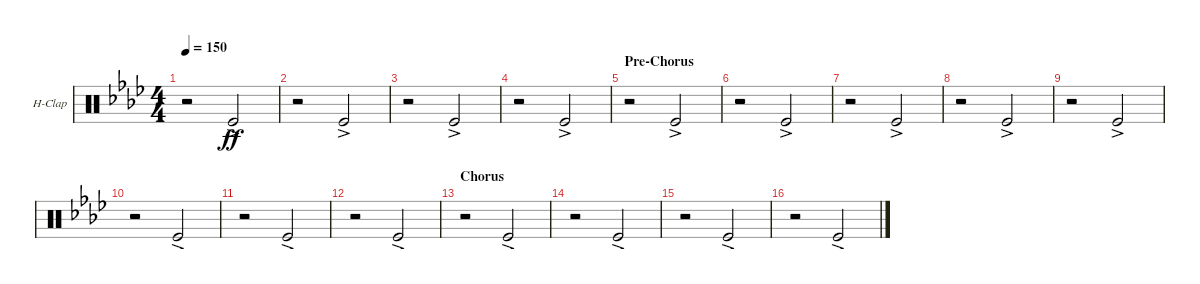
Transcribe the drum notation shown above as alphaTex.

\bracketExtendMode groupsimilarinstruments
\firstSystemTrackNameOrientation horizontal
\otherSystemsTrackNameOrientation horizontal
\track ("Hand Clap" "H-Clap") {instrument percussion}
\staff {score}
\articulation defaults
\ts (4 4)
\tempo 150
\clef neutral
\scale
0.333333
\ks ab
r.2{dy ff} "Kick (hit)"{ac}.2 |
\scale
0.333333 r.2 "Kick (hit)"{ac}.2 |
\scale
0.333333 r.2 "Kick (hit)"{ac}.2 |
\scale
0.333333 r.2 "Kick (hit)"{ac}.2 |
\section ("" "Pre-Chorus")
\scale
0.333333 r.2 "Kick (hit)"{ac}.2 |
\scale
0.333333 r.2 "Kick (hit)"{ac}.2 |
\scale
0.333333 r.2 "Kick (hit)"{ac}.2 |
\scale
0.333333 r.2 "Kick (hit)"{ac}.2 |
\scale
0.333333 r.2 "Kick (hit)"{ac}.2 |
\scale
0.333333 r.2 "Kick (hit)"{ac}.2 |
\scale
0.333333 r.2 "Kick (hit)"{ac}.2 |
\scale
0.333333 r.2 "Kick (hit)"{ac}.2 |
\section ("" "Chorus")
\scale
0.333333 r.2 "Kick (hit)"{ac}.2 |
\scale
0.333333 r.2 "Kick (hit)"{ac}.2 |
\scale
0.333333 r.2 "Kick (hit)"{ac}.2 |
\scale
0.333333 r.2 "Kick (hit)"{ac}.2
